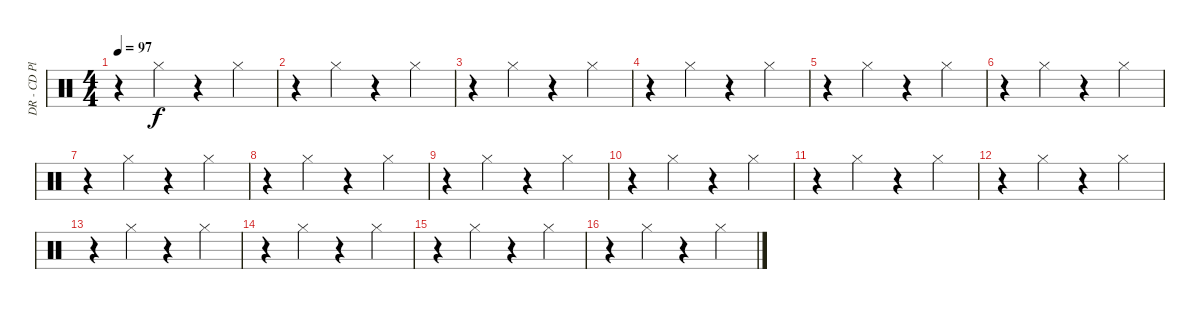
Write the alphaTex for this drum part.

\track ("DR - CD Player" "DR - CD Pl") {instrument percussion}
\staff {score}
\articulation defaults
\ts (4 4)
\tempo 97
\clef neutral
\ks c
r.4{dy f} "Hi-Hat (closed)".4 r.4 "Hi-Hat (closed)".4 |
r.4 "Hi-Hat (closed)".4 r.4 "Hi-Hat (closed)".4 |
r.4 "Hi-Hat (closed)".4 r.4 "Hi-Hat (closed)".4 |
r.4 "Hi-Hat (closed)".4 r.4 "Hi-Hat (closed)".4 |
r.4 "Hi-Hat (closed)".4 r.4 "Hi-Hat (closed)".4 |
r.4 "Hi-Hat (closed)".4 r.4 "Hi-Hat (closed)".4 |
r.4 "Hi-Hat (closed)".4 r.4 "Hi-Hat (closed)".4 |
r.4 "Hi-Hat (closed)".4 r.4 "Hi-Hat (closed)".4 |
r.4 "Hi-Hat (closed)".4 r.4 "Hi-Hat (closed)".4 |
r.4 "Hi-Hat (closed)".4 r.4 "Hi-Hat (closed)".4 |
r.4 "Hi-Hat (closed)".4 r.4 "Hi-Hat (closed)".4 |
r.4 "Hi-Hat (closed)".4 r.4 "Hi-Hat (closed)".4 |
r.4 "Hi-Hat (closed)".4 r.4 "Hi-Hat (closed)".4 |
r.4 "Hi-Hat (closed)".4 r.4 "Hi-Hat (closed)".4 |
r.4 "Hi-Hat (closed)".4 r.4 "Hi-Hat (closed)".4 |
r.4 "Hi-Hat (closed)".4 r.4 "Hi-Hat (closed)".4
